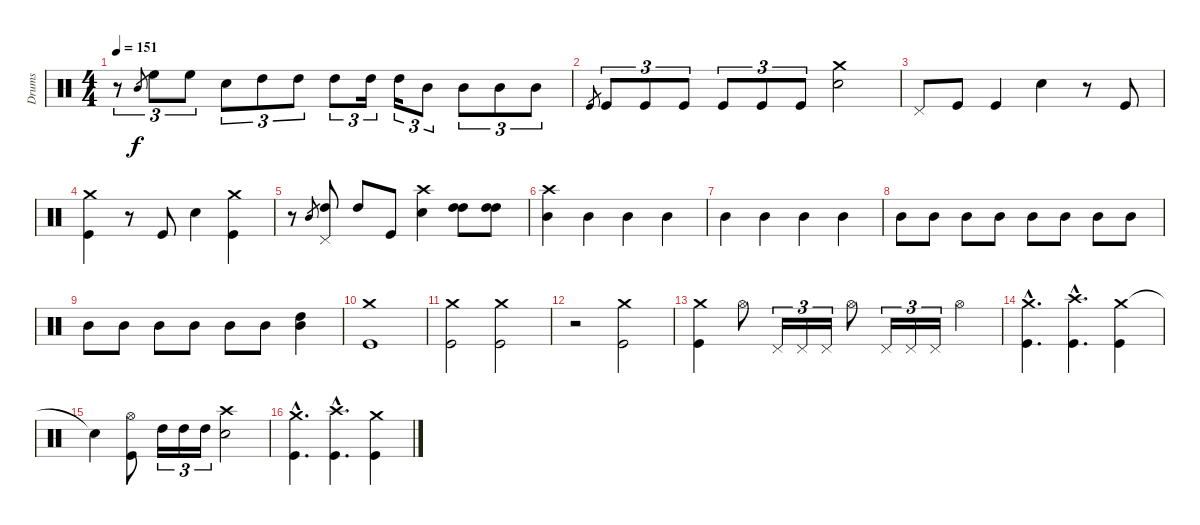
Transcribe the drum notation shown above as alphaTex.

\track ("Drums" "Drums") {instrument percussion}
\staff {score}
\articulation defaults
\ts (4 4)
\tempo 151
\clef neutral
\ks c
r.8{tu (3 2) dy f} "Mid Tom (hit)".8{gr} "High Floor Tom (hit)".8{tu (3 2)} "High Floor Tom (hit)".8{tu (3 2)} "Snare (hit) 2".8{tu (3 2)} "High Tom (hit)".8{tu (3 2)} "High Tom (hit)".8{tu (3 2)} "High Tom (hit)".8{tu (3 2)} "High Tom (hit)".16{tu (3 2)} "High Tom (hit)".16{tu (3 2)} "Mid Tom (hit)".8{tu (3 2)} "Mid Tom (hit)".8{tu (3 2)} "Mid Tom (hit)".8{tu (3 2)} "Mid Tom (hit)".8{tu (3 2)} |
"Kick (hit)".8{gr} "Kick (hit)".8{tu (3 2)} "Kick (hit)".8{tu (3 2)} "Kick (hit)".8{tu (3 2)} "Kick (hit)".8{tu (3 2)} "Kick (hit)".8{tu (3 2)} "Kick (hit)".8{tu (3 2)} ("Crash medium (hit)" "Snare (hit) 2").2 |
"Pedal Hi-Hat (hit)".8 "Kick (hit)".8 "Kick (hit)".4 "Snare (hit) 2".4 r.8 "Kick (hit)".8 |
("Crash medium (hit)" "Kick (hit)").4 r.8 "Kick (hit)".8 "Snare (hit) 2".4 ("Crash medium (hit)" "Kick (hit)").4 |
r.8 "Mid Tom (hit)".8{gr} ("Pedal Hi-Hat (hit)" "High Tom (hit)").8 "High Tom (hit)".8 "Kick (hit)".8 ("Crash high (hit)" "Snare (hit) 2").4 ("High Tom (hit)" "High Tom (hit)").8 ("High Tom (hit)" "High Tom (hit)").8 |
("Crash high (hit)" "Mid Tom (hit)").4 "Mid Tom (hit)".4 "Mid Tom (hit)".4 "Mid Tom (hit)".4 |
"Mid Tom (hit)".4 "Mid Tom (hit)".4 "Mid Tom (hit)".4 "Mid Tom (hit)".4 |
"Mid Tom (hit)".8 "Mid Tom (hit)".8 "Mid Tom (hit)".8 "Mid Tom (hit)".8 "Mid Tom (hit)".8 "Mid Tom (hit)".8 "Mid Tom (hit)".8 "Mid Tom (hit)".8 |
"Mid Tom (hit)".8 "Mid Tom (hit)".8 "Mid Tom (hit)".8 "Mid Tom (hit)".8 "Mid Tom (hit)".8 "Mid Tom (hit)".8 ("High Tom (hit)" "Mid Tom (hit)").4 |
("Crash medium (hit)" "Kick (hit)").1 |
("Crash medium (hit)" "Kick (hit)").2 ("Crash medium (hit)" "Kick (hit)").2 |
r.2 ("Crash medium (hit)" "Kick (hit)").2 |
("Crash medium (hit)" "Kick (hit)").4 "Hi-Hat (open)".8 "Pedal Hi-Hat (hit)".16{tu (3 2)} "Pedal Hi-Hat (hit)".16{tu (3 2)} "Pedal Hi-Hat (hit)".16{tu (3 2)} "Hi-Hat (open)".8 "Pedal Hi-Hat (hit)".16{tu (3 2)} "Pedal Hi-Hat (hit)".16{tu (3 2)} "Pedal Hi-Hat (hit)".16{tu (3 2)} "Hi-Hat (open)".4 |
("Crash medium (hit)"{hac} "Kick (hit)"{hac}).4{d} ("Crash high (hit)"{hac} "Kick (hit)"{hac}).4{d} ("Crash medium (hit)" "Kick (hit)").4 |
"Snare (hit)"{t}.4 ("Hi-Hat (open)" "Kick (hit)").8 "High Tom (hit)".16{tu (3 2)} "High Tom (hit)".16{tu (3 2)} "High Tom (hit)".16{tu (3 2)} ("Crash high (hit)" "Snare (hit) 2").2 |
("Crash medium (hit)"{hac} "Kick (hit)"{hac}).4{d} ("Crash high (hit)"{hac} "Kick (hit)"{hac}).4{d} ("Crash medium (hit)" "Kick (hit)").4
